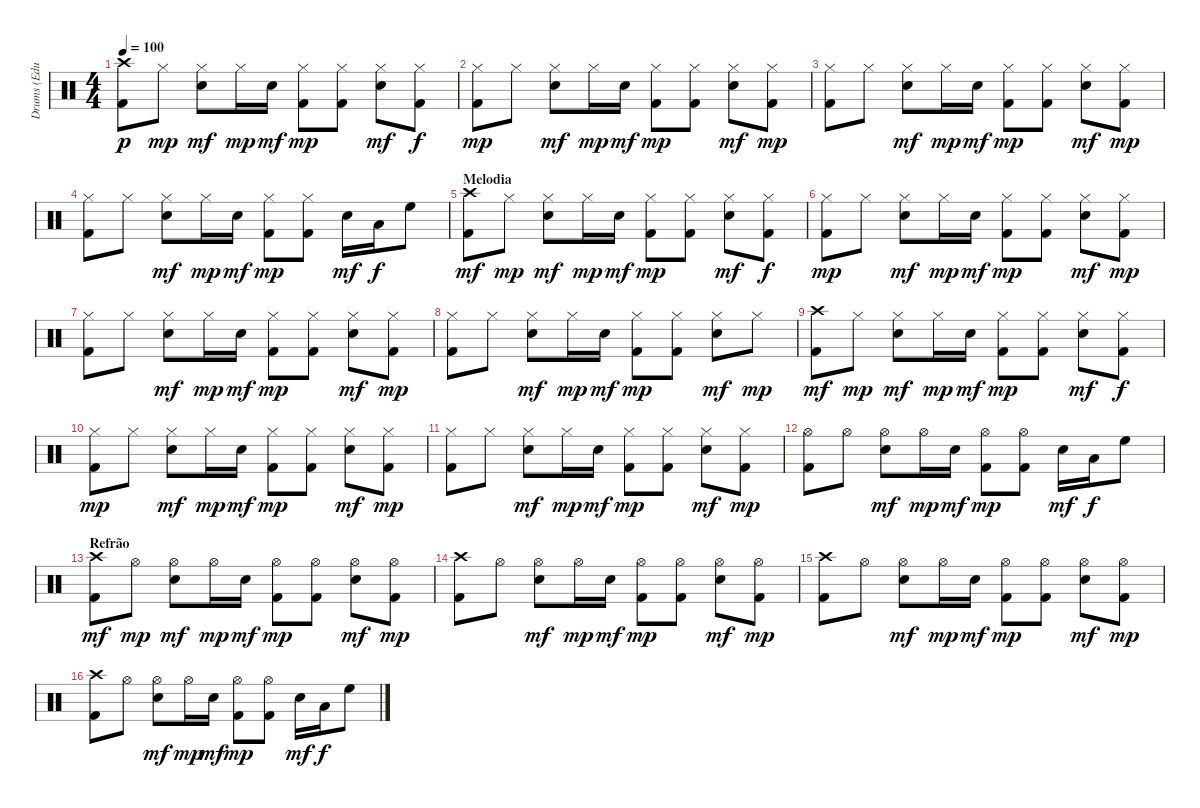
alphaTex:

\track ("Drums (Eduardo)" "Drums (Edu") {instrument percussion}
\staff {score}
\articulation defaults
\ts (4 4)
\tempo 100
\clef neutral
\ks c
("Crash high (hit)" "Kick (hit) 2").8{dy p} "Hi-Hat (closed)".8{dy mp} ("Hi-Hat (closed)" "Electric Snare (hit)").8{dy mf} "Hi-Hat (closed)".16{dy mp} "Electric Snare (hit)".16{dy mf} ("Hi-Hat (closed)" "Kick (hit) 2").8{dy mp} ("Hi-Hat (closed)" "Kick (hit) 2").8 ("Hi-Hat (closed)" "Electric Snare (hit)").8{dy mf} ("Hi-Hat (closed)" "Kick (hit) 2").8{dy f} |
("Hi-Hat (closed)" "Kick (hit) 2").8{dy mp} "Hi-Hat (closed)".8 ("Hi-Hat (closed)" "Electric Snare (hit)").8{dy mf} "Hi-Hat (closed)".16{dy mp} "Electric Snare (hit)".16{dy mf} ("Hi-Hat (closed)" "Kick (hit) 2").8{dy mp} ("Hi-Hat (closed)" "Kick (hit) 2").8 ("Hi-Hat (closed)" "Electric Snare (hit)").8{dy mf} ("Hi-Hat (closed)" "Kick (hit) 2").8{dy mp} |
("Hi-Hat (closed)" "Kick (hit) 2").8 "Hi-Hat (closed)".8 ("Hi-Hat (closed)" "Electric Snare (hit)").8{dy mf} "Hi-Hat (closed)".16{dy mp} "Electric Snare (hit)".16{dy mf} ("Hi-Hat (closed)" "Kick (hit) 2").8{dy mp} ("Hi-Hat (closed)" "Kick (hit) 2").8 ("Hi-Hat (closed)" "Electric Snare (hit)").8{dy mf} ("Hi-Hat (closed)" "Kick (hit) 2").8{dy mp} |
("Hi-Hat (closed)" "Kick (hit) 2").8 "Hi-Hat (closed)".8 ("Hi-Hat (closed)" "Electric Snare (hit)").8{dy mf} "Hi-Hat (closed)".16{dy mp} "Electric Snare (hit)".16{dy mf} ("Hi-Hat (closed)" "Kick (hit) 2").8{dy mp} ("Hi-Hat (closed)" "Kick (hit) 2").8 "Electric Snare (hit)".16{dy mf} "Low Tom (hit)".16{dy f} "High Floor Tom (hit)".8 |
\section ("" "Melodia")
("Crash high (hit)" "Kick (hit) 2").8{dy mf} "Hi-Hat (closed)".8{dy mp} ("Hi-Hat (closed)" "Electric Snare (hit)").8{dy mf} "Hi-Hat (closed)".16{dy mp} "Electric Snare (hit)".16{dy mf} ("Hi-Hat (closed)" "Kick (hit) 2").8{dy mp} ("Hi-Hat (closed)" "Kick (hit) 2").8 ("Hi-Hat (closed)" "Electric Snare (hit)").8{dy mf} ("Hi-Hat (closed)" "Kick (hit) 2").8{dy f} |
("Hi-Hat (closed)" "Kick (hit) 2").8{dy mp} "Hi-Hat (closed)".8 ("Hi-Hat (closed)" "Electric Snare (hit)").8{dy mf} "Hi-Hat (closed)".16{dy mp} "Electric Snare (hit)".16{dy mf} ("Hi-Hat (closed)" "Kick (hit) 2").8{dy mp} ("Hi-Hat (closed)" "Kick (hit) 2").8 ("Hi-Hat (closed)" "Electric Snare (hit)").8{dy mf} ("Hi-Hat (closed)" "Kick (hit) 2").8{dy mp} |
("Hi-Hat (closed)" "Kick (hit) 2").8 "Hi-Hat (closed)".8 ("Hi-Hat (closed)" "Electric Snare (hit)").8{dy mf} "Hi-Hat (closed)".16{dy mp} "Electric Snare (hit)".16{dy mf} ("Hi-Hat (closed)" "Kick (hit) 2").8{dy mp} ("Hi-Hat (closed)" "Kick (hit) 2").8 ("Hi-Hat (closed)" "Electric Snare (hit)").8{dy mf} ("Hi-Hat (closed)" "Kick (hit) 2").8{dy mp} |
("Hi-Hat (closed)" "Kick (hit) 2").8 "Hi-Hat (closed)".8 ("Hi-Hat (closed)" "Electric Snare (hit)").8{dy mf} "Hi-Hat (closed)".16{dy mp} "Electric Snare (hit)".16{dy mf} ("Hi-Hat (closed)" "Kick (hit) 2").8{dy mp} ("Hi-Hat (closed)" "Kick (hit) 2").8 ("Hi-Hat (closed)" "Electric Snare (hit)").8{dy mf} "Hi-Hat (closed)".8{dy mp} |
("Crash high (hit)" "Kick (hit) 2").8{dy mf} "Hi-Hat (closed)".8{dy mp} ("Hi-Hat (closed)" "Electric Snare (hit)").8{dy mf} "Hi-Hat (closed)".16{dy mp} "Electric Snare (hit)".16{dy mf} ("Hi-Hat (closed)" "Kick (hit) 2").8{dy mp} ("Hi-Hat (closed)" "Kick (hit) 2").8 ("Hi-Hat (closed)" "Electric Snare (hit)").8{dy mf} ("Hi-Hat (closed)" "Kick (hit) 2").8{dy f} |
("Hi-Hat (closed)" "Kick (hit) 2").8{dy mp} "Hi-Hat (closed)".8 ("Hi-Hat (closed)" "Electric Snare (hit)").8{dy mf} "Hi-Hat (closed)".16{dy mp} "Electric Snare (hit)".16{dy mf} ("Hi-Hat (closed)" "Kick (hit) 2").8{dy mp} ("Hi-Hat (closed)" "Kick (hit) 2").8 ("Hi-Hat (closed)" "Electric Snare (hit)").8{dy mf} ("Hi-Hat (closed)" "Kick (hit) 2").8{dy mp} |
("Hi-Hat (closed)" "Kick (hit) 2").8 "Hi-Hat (closed)".8 ("Hi-Hat (closed)" "Electric Snare (hit)").8{dy mf} "Hi-Hat (closed)".16{dy mp} "Electric Snare (hit)".16{dy mf} ("Hi-Hat (closed)" "Kick (hit) 2").8{dy mp} ("Hi-Hat (closed)" "Kick (hit) 2").8 ("Hi-Hat (closed)" "Electric Snare (hit)").8{dy mf} ("Hi-Hat (closed)" "Kick (hit) 2").8{dy mp} |
("Hi-Hat (open)" "Kick (hit) 2").8 "Hi-Hat (open)".8 ("Hi-Hat (open)" "Electric Snare (hit)").8{dy mf} "Hi-Hat (open)".16{dy mp} "Electric Snare (hit)".16{dy mf} ("Hi-Hat (open)" "Kick (hit) 2").8{dy mp} ("Hi-Hat (open)" "Kick (hit) 2").8 "Electric Snare (hit)".16{dy mf} "Low Tom (hit)".16{dy f} "High Floor Tom (hit)".8 |
\section ("" "Refrão")
("Crash high (hit)" "Kick (hit) 2").8{dy mf} "Hi-Hat (open)".8{dy mp} ("Hi-Hat (open)" "Electric Snare (hit)").8{dy mf} "Hi-Hat (open)".16{dy mp} "Electric Snare (hit)".16{dy mf} ("Hi-Hat (open)" "Kick (hit) 2").8{dy mp} ("Hi-Hat (open)" "Kick (hit) 2").8 ("Hi-Hat (open)" "Electric Snare (hit)").8{dy mf} ("Hi-Hat (open)" "Kick (hit) 2").8{dy mp} |
("Crash high (hit)" "Kick (hit) 2").8 "Hi-Hat (open)".8 ("Hi-Hat (open)" "Electric Snare (hit)").8{dy mf} "Hi-Hat (open)".16{dy mp} "Electric Snare (hit)".16{dy mf} ("Hi-Hat (open)" "Kick (hit) 2").8{dy mp} ("Hi-Hat (open)" "Kick (hit) 2").8 ("Hi-Hat (open)" "Electric Snare (hit)").8{dy mf} ("Hi-Hat (open)" "Kick (hit) 2").8{dy mp} |
("Crash high (hit)" "Kick (hit) 2").8 "Hi-Hat (open)".8 ("Hi-Hat (open)" "Electric Snare (hit)").8{dy mf} "Hi-Hat (open)".16{dy mp} "Electric Snare (hit)".16{dy mf} ("Hi-Hat (open)" "Kick (hit) 2").8{dy mp} ("Hi-Hat (open)" "Kick (hit) 2").8 ("Hi-Hat (open)" "Electric Snare (hit)").8{dy mf} ("Hi-Hat (open)" "Kick (hit) 2").8{dy mp} |
("Crash high (hit)" "Kick (hit) 2").8 "Hi-Hat (open)".8 ("Hi-Hat (open)" "Electric Snare (hit)").8{dy mf} "Hi-Hat (open)".16{dy mp} "Electric Snare (hit)".16{dy mf} ("Hi-Hat (open)" "Kick (hit) 2").8{dy mp} ("Hi-Hat (open)" "Kick (hit) 2").8 "Electric Snare (hit)".16{dy mf} "Low Tom (hit)".16{dy f} "High Floor Tom (hit)".8
